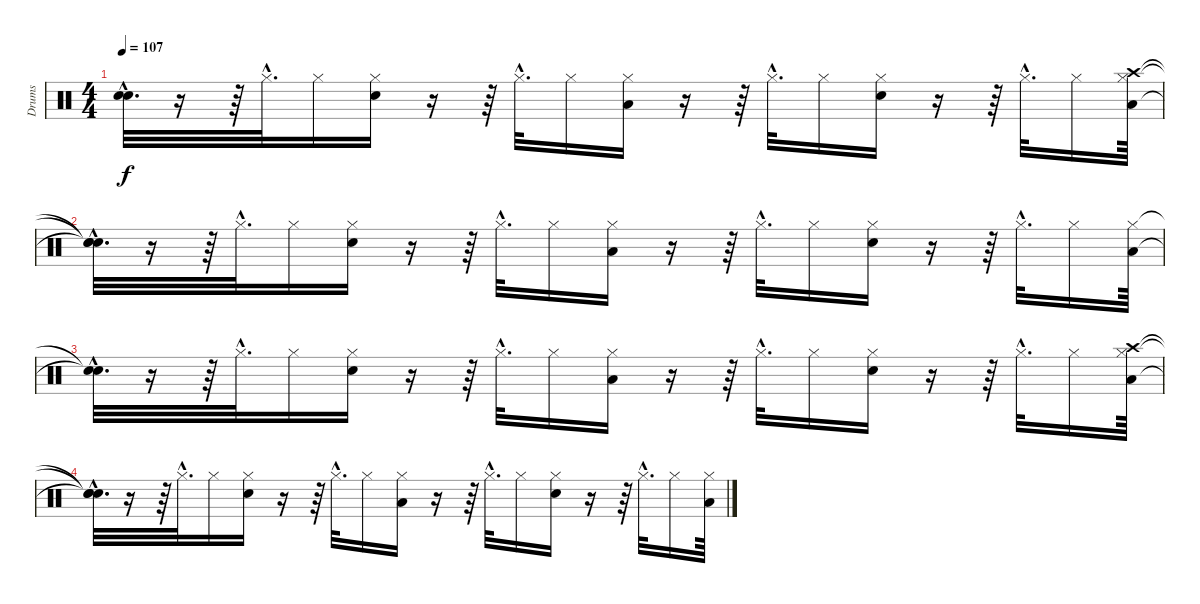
\track ("Drums" "Drums") {instrument percussion}
\staff {score}
\articulation defaults
\ts (4 4)
\tempo 107
\clef neutral
\ks c
("Snare (hit)"{hac t} "Snare (hit)"{hac t}).32{d dy f} r.16 r.64 "Hi-Hat (closed)"{hac}.32{d} "Hi-Hat (closed)".16 ("Hi-Hat (closed)" "Snare (hit) 2").16 r.16 r.64 "Hi-Hat (closed)"{hac}.32{d} "Hi-Hat (closed)".16 ("Hi-Hat (closed)" "Low Tom (hit)").16 r.16 r.64 "Hi-Hat (closed)"{hac}.32{d} "Hi-Hat (closed)".16 ("Hi-Hat (closed)" "Snare (hit) 2").16 r.16 r.64 "Hi-Hat (closed)"{hac}.32{d} "Hi-Hat (closed)".16 ("Hi-Hat (closed)" "Crash high (hit)" "Low Tom (hit)").64 |
("Snare (hit)"{hac t} "Snare (hit)"{hac t} "Snare (hit)"{hac t}).32{d} r.16 r.64 "Hi-Hat (closed)"{hac}.32{d} "Hi-Hat (closed)".16 ("Hi-Hat (closed)" "Snare (hit) 2").16 r.16 r.64 "Hi-Hat (closed)"{hac}.32{d} "Hi-Hat (closed)".16 ("Hi-Hat (closed)" "Low Tom (hit)").16 r.16 r.64 "Hi-Hat (closed)"{hac}.32{d} "Hi-Hat (closed)".16 ("Hi-Hat (closed)" "Snare (hit) 2").16 r.16 r.64 "Hi-Hat (closed)"{hac}.32{d} "Hi-Hat (closed)".16 ("Hi-Hat (closed)" "Low Tom (hit)").64 |
("Snare (hit)"{hac t} "Snare (hit)"{hac t}).32{d} r.16 r.64 "Hi-Hat (closed)"{hac}.32{d} "Hi-Hat (closed)".16 ("Hi-Hat (closed)" "Snare (hit) 2").16 r.16 r.64 "Hi-Hat (closed)"{hac}.32{d} "Hi-Hat (closed)".16 ("Hi-Hat (closed)" "Low Tom (hit)").16 r.16 r.64 "Hi-Hat (closed)"{hac}.32{d} "Hi-Hat (closed)".16 ("Hi-Hat (closed)" "Snare (hit) 2").16 r.16 r.64 "Hi-Hat (closed)"{hac}.32{d} "Hi-Hat (closed)".16 ("Hi-Hat (closed)" "Crash high (hit)" "Low Tom (hit)").64 |
("Snare (hit)"{hac t} "Snare (hit)"{hac t} "Snare (hit)"{hac t}).32{d} r.16 r.64 "Hi-Hat (closed)"{hac}.32{d} "Hi-Hat (closed)".16 ("Hi-Hat (closed)" "Snare (hit) 2").16 r.16 r.64 "Hi-Hat (closed)"{hac}.32{d} "Hi-Hat (closed)".16 ("Hi-Hat (closed)" "Low Tom (hit)").16 r.16 r.64 "Hi-Hat (closed)"{hac}.32{d} "Hi-Hat (closed)".16 ("Hi-Hat (closed)" "Snare (hit) 2").16 r.16 r.64 "Hi-Hat (closed)"{hac}.32{d} "Hi-Hat (closed)".16 ("Hi-Hat (closed)" "Low Tom (hit)").64
